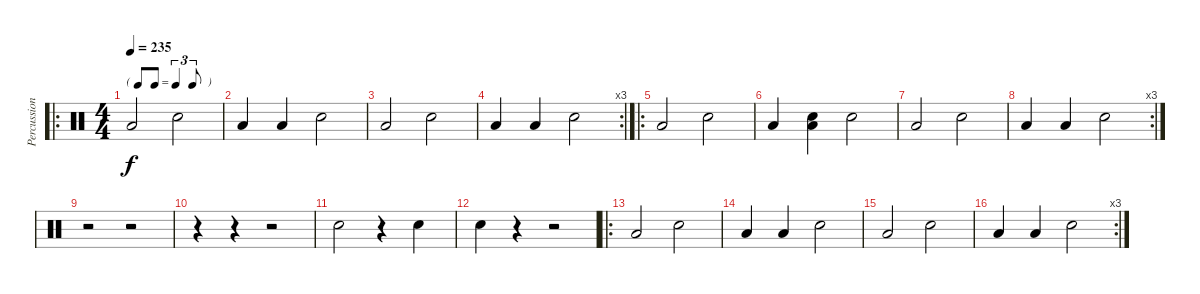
\track ("Percussions" "Percussion") {instrument percussion}
\staff
\articulation defaults
\ro
\ts (4 4)
\tf triplet8th
\tempo 235
\clef neutral
\ks c "Low Tom (hit)".2{dy f} "Snare (hit) 2".2
|
"Low Tom (hit)".4 "Low Tom (hit)".4 "Snare (hit) 2".2 |
"Low Tom (hit)".2 "Snare (hit) 2".2 |
\rc 3 "Low Tom (hit)".4 "Low Tom (hit)".4 "Snare (hit) 2".2
|
\ro "Low Tom (hit)".2 "Snare (hit) 2".2
|
"Low Tom (hit)".4 ("Snare (hit)" "Low Tom (hit)").4 "Snare (hit) 2".2 |
"Low Tom (hit)".2 "Snare (hit) 2".2 |
\rc 3 "Low Tom (hit)".4 "Low Tom (hit)".4 "Snare (hit) 2".2
|
r.2 r.2 |
r.4 r.4 r.2 |
"Snare (hit) 2".2 r.4 "Snare (hit) 2".4 |
"Snare (hit) 2".4 r.4 r.2 |
\ro "Low Tom (hit)".2 "Snare (hit) 2".2
|
"Low Tom (hit)".4 "Low Tom (hit)".4 "Snare (hit) 2".2 |
"Low Tom (hit)".2 "Snare (hit) 2".2 |
\rc 3 "Low Tom (hit)".4 "Low Tom (hit)".4 "Snare (hit) 2".2
